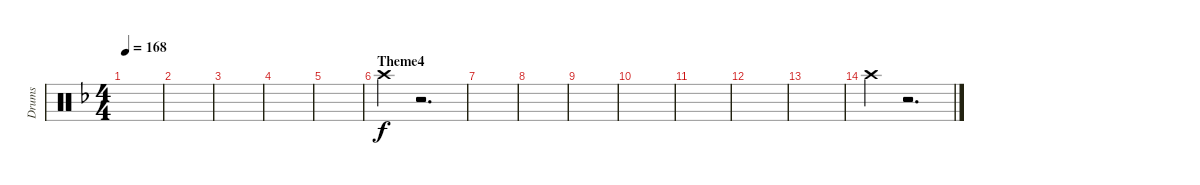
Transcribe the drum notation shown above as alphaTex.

\track ("Drums" "Drums") {instrument percussion}
\staff {score}
\articulation defaults
\ts (4 4)
\tempo 168
\clef neutral
\ks f
|
|
|
|
|
\section ("" "Theme4")
"Crash high (hit)".4 r.2{d} |
|
|
|
|
|
|
|
"Crash high (hit)".4 r.2{d}
